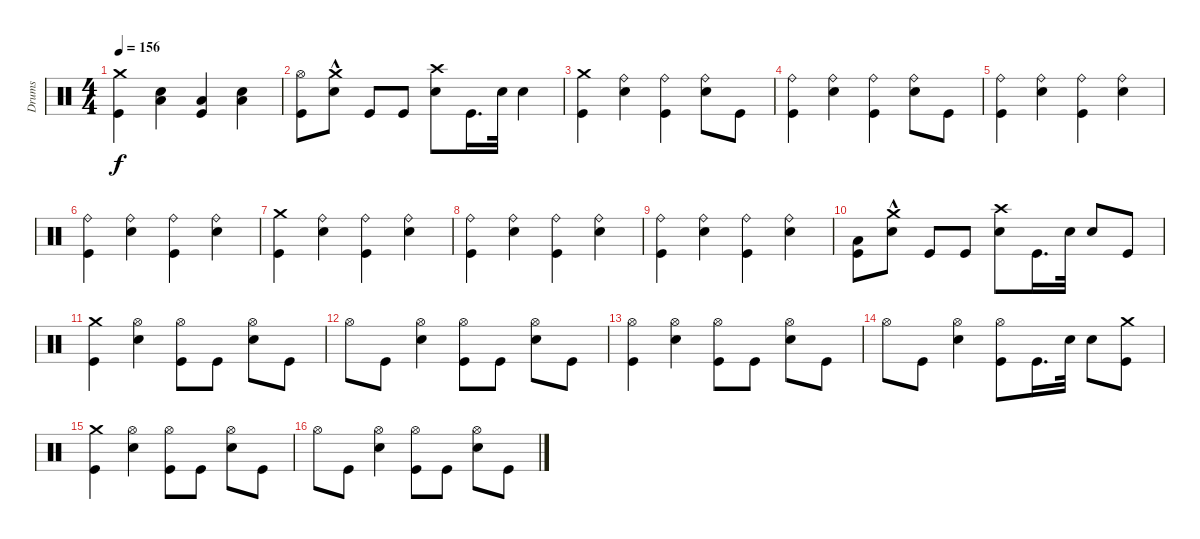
\track ("Drums" "Drums") {instrument percussion}
\staff {score}
\articulation defaults
\ts (4 4)
\tempo 156
\clef neutral
\ks c
("Crash medium (hit)" "Kick (hit)").4{dy f} ("Low Tom (hit)" "Electric Snare (hit)").4 ("Kick (hit)" "Low Floor Tom (hit)").4 ("Electric Snare (hit)" "Low Tom (hit)").4 |
("Kick (hit)" "Hi-Hat (open)").8 ("Electric Snare (hit)" "Crash medium (hit)"{hac}).8 "Kick (hit)".8 "Kick (hit)".8 ("Crash high (hit)" "Electric Snare (hit)").8 "Kick (hit)".16{d} "Electric Snare (hit)".32 "Electric Snare (hit)".4 |
("Crash medium (hit)" "Kick (hit)").4 ("Ride (bell)" "Electric Snare (hit)").4 ("Ride (bell)" "Kick (hit)").4 ("Ride (bell)" "Electric Snare (hit)").8 "Kick (hit)".8 |
("Ride (bell)" "Kick (hit)").4 ("Ride (bell)" "Electric Snare (hit)").4 ("Ride (bell)" "Kick (hit)").4 ("Ride (bell)" "Electric Snare (hit)").8 "Kick (hit)".8 |
("Ride (bell)" "Kick (hit)").4 ("Ride (bell)" "Electric Snare (hit)").4 ("Ride (bell)" "Kick (hit)").4 ("Ride (bell)" "Electric Snare (hit)").4 |
("Ride (bell)" "Kick (hit)").4 ("Ride (bell)" "Electric Snare (hit)").4 ("Ride (bell)" "Kick (hit)").4 ("Ride (bell)" "Electric Snare (hit)").4 |
("Crash medium (hit)" "Kick (hit)").4 ("Ride (bell)" "Electric Snare (hit)").4 ("Ride (bell)" "Kick (hit)").4 ("Ride (bell)" "Electric Snare (hit)").4 |
("Ride (bell)" "Kick (hit)").4 ("Ride (bell)" "Electric Snare (hit)").4 ("Ride (bell)" "Kick (hit)").4 ("Ride (bell)" "Electric Snare (hit)").4 |
("Ride (bell)" "Kick (hit)").4 ("Ride (bell)" "Electric Snare (hit)").4 ("Ride (bell)" "Kick (hit)").4 ("Ride (bell)" "Electric Snare (hit)").4 |
("Low Floor Tom (hit)" "Kick (hit)").8 ("Crash medium (hit)"{hac} "Electric Snare (hit)").8 "Kick (hit)".8 "Kick (hit)".8 ("Electric Snare (hit)" "Crash high (hit)").8 "Kick (hit)".16{d} "Electric Snare (hit)".32 "Electric Snare (hit)".8 "Kick (hit)".8 |
("Kick (hit)" "Crash medium (hit)").4 ("Electric Snare (hit)" "Hi-Hat (open)").4 ("Kick (hit)" "Hi-Hat (open)").8 "Kick (hit)".8 ("Electric Snare (hit)" "Hi-Hat (open)").8 "Kick (hit)".8 |
"Hi-Hat (open)".8 "Kick (hit)".8 ("Electric Snare (hit)" "Hi-Hat (open)").4 ("Kick (hit)" "Hi-Hat (open)").8 "Kick (hit)".8 ("Electric Snare (hit)" "Hi-Hat (open)").8 "Kick (hit)".8 |
("Hi-Hat (open)" "Kick (hit)").4 ("Hi-Hat (open)" "Electric Snare (hit)").4 ("Hi-Hat (open)" "Kick (hit)").8 "Kick (hit)".8 ("Hi-Hat (open)" "Electric Snare (hit)").8 "Kick (hit)".8 |
"Hi-Hat (open)".8 "Kick (hit)".8 ("Electric Snare (hit)" "Hi-Hat (open)").4 ("Kick (hit)" "Hi-Hat (open)").8 "Kick (hit)".16{d} "Electric Snare (hit)".32 "Electric Snare (hit)".8 ("Kick (hit)" "Crash medium (hit)").8 |
("Kick (hit)" "Crash medium (hit)").4 ("Electric Snare (hit)" "Hi-Hat (open)").4 ("Kick (hit)" "Hi-Hat (open)").8 "Kick (hit)".8 ("Electric Snare (hit)" "Hi-Hat (open)").8 "Kick (hit)".8 |
"Hi-Hat (open)".8 "Kick (hit)".8 ("Electric Snare (hit)" "Hi-Hat (open)").4 ("Kick (hit)" "Hi-Hat (open)").8 "Kick (hit)".8 ("Electric Snare (hit)" "Hi-Hat (open)").8 "Kick (hit)".8
